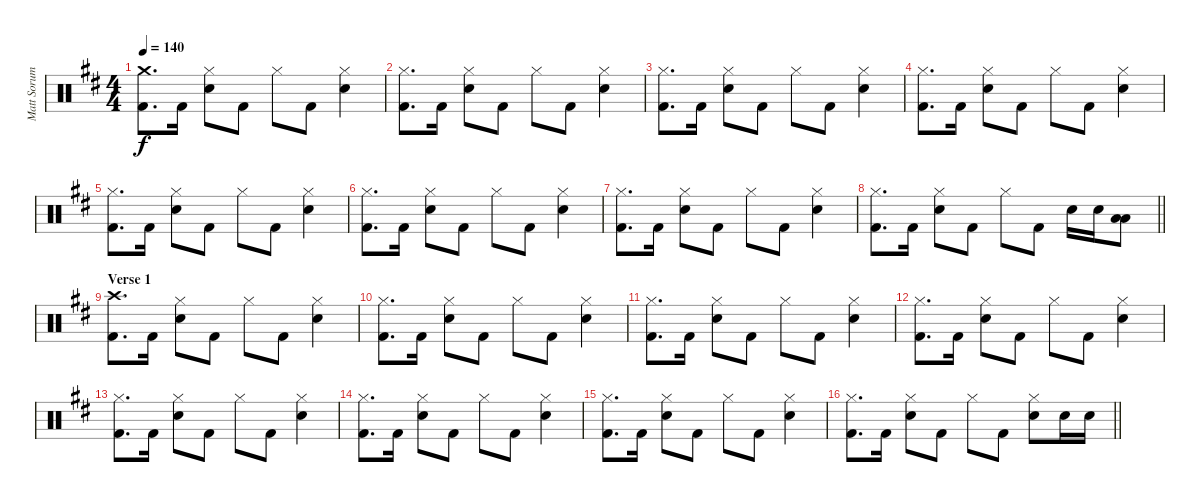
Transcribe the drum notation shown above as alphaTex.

\track ("Matt Sorum - Drums" "Matt Sorum") {instrument percussion}
\staff {score}
\articulation defaults
\ts (4 4)
\tempo 140
\clef neutral
\ks d
("Crash medium (hit)" "Kick (hit) 2").8{d dy f} "Kick (hit) 2".16 ("Hi-Hat (closed)" "Snare (hit) 2").8 "Kick (hit) 2".8 "Hi-Hat (closed)".8 "Kick (hit) 2".8 ("Hi-Hat (closed)" "Snare (hit) 2").4 |
("Hi-Hat (closed)" "Kick (hit) 2").8{d} "Kick (hit) 2".16 ("Hi-Hat (closed)" "Snare (hit) 2").8 "Kick (hit) 2".8 "Hi-Hat (closed)".8 "Kick (hit) 2".8 ("Hi-Hat (closed)" "Snare (hit) 2").4 |
("Hi-Hat (closed)" "Kick (hit) 2").8{d} "Kick (hit) 2".16 ("Hi-Hat (closed)" "Snare (hit) 2").8 "Kick (hit) 2".8 "Hi-Hat (closed)".8 "Kick (hit) 2".8 ("Hi-Hat (closed)" "Snare (hit) 2").4 |
("Hi-Hat (closed)" "Kick (hit) 2").8{d} "Kick (hit) 2".16 ("Hi-Hat (closed)" "Snare (hit) 2").8 "Kick (hit) 2".8 "Hi-Hat (closed)".8 "Kick (hit) 2".8 ("Hi-Hat (closed)" "Snare (hit) 2").4 |
("Hi-Hat (closed)" "Kick (hit) 2").8{d} "Kick (hit) 2".16 ("Hi-Hat (closed)" "Snare (hit) 2").8 "Kick (hit) 2".8 "Hi-Hat (closed)".8 "Kick (hit) 2".8 ("Hi-Hat (closed)" "Snare (hit) 2").4 |
("Hi-Hat (closed)" "Kick (hit) 2").8{d} "Kick (hit) 2".16 ("Hi-Hat (closed)" "Snare (hit) 2").8 "Kick (hit) 2".8 "Hi-Hat (closed)".8 "Kick (hit) 2".8 ("Hi-Hat (closed)" "Snare (hit) 2").4 |
("Hi-Hat (closed)" "Kick (hit) 2").8{d} "Kick (hit) 2".16 ("Hi-Hat (closed)" "Snare (hit) 2").8 "Kick (hit) 2".8 "Hi-Hat (closed)".8 "Kick (hit) 2".8 ("Hi-Hat (closed)" "Snare (hit) 2").4 |
\barLineRight lightlight
("Hi-Hat (closed)" "Kick (hit) 2").8{d} "Kick (hit) 2".16 ("Hi-Hat (closed)" "Snare (hit) 2").8 "Kick (hit) 2".8 "Hi-Hat (closed)".8 "Kick (hit) 2".8 "Snare (hit) 2".16 "Snare (hit) 2".16 ("Low Tom (hit)" "Low Tom (hit)").8 |
\section ("" "Verse 1")
("Crash high (hit)" "Kick (hit) 2").8{d} "Kick (hit) 2".16 ("Hi-Hat (closed)" "Snare (hit) 2").8 "Kick (hit) 2".8 "Hi-Hat (closed)".8 "Kick (hit) 2".8 ("Hi-Hat (closed)" "Snare (hit) 2").4 |
("Hi-Hat (closed)" "Kick (hit) 2").8{d} "Kick (hit) 2".16 ("Hi-Hat (closed)" "Snare (hit) 2").8 "Kick (hit) 2".8 "Hi-Hat (closed)".8 "Kick (hit) 2".8 ("Hi-Hat (closed)" "Snare (hit) 2").4 |
("Hi-Hat (closed)" "Kick (hit) 2").8{d} "Kick (hit) 2".16 ("Hi-Hat (closed)" "Snare (hit) 2").8 "Kick (hit) 2".8 "Hi-Hat (closed)".8 "Kick (hit) 2".8 ("Hi-Hat (closed)" "Snare (hit) 2").4 |
("Hi-Hat (closed)" "Kick (hit) 2").8{d} "Kick (hit) 2".16 ("Hi-Hat (closed)" "Snare (hit) 2").8 "Kick (hit) 2".8 "Hi-Hat (closed)".8 "Kick (hit) 2".8 ("Hi-Hat (closed)" "Snare (hit) 2").4 |
("Hi-Hat (closed)" "Kick (hit) 2").8{d} "Kick (hit) 2".16 ("Hi-Hat (closed)" "Snare (hit) 2").8 "Kick (hit) 2".8 "Hi-Hat (closed)".8 "Kick (hit) 2".8 ("Hi-Hat (closed)" "Snare (hit) 2").4 |
("Hi-Hat (closed)" "Kick (hit) 2").8{d} "Kick (hit) 2".16 ("Hi-Hat (closed)" "Snare (hit) 2").8 "Kick (hit) 2".8 "Hi-Hat (closed)".8 "Kick (hit) 2".8 ("Hi-Hat (closed)" "Snare (hit) 2").4 |
("Hi-Hat (closed)" "Kick (hit) 2").8{d} "Kick (hit) 2".16 ("Hi-Hat (closed)" "Snare (hit) 2").8 "Kick (hit) 2".8 "Hi-Hat (closed)".8 "Kick (hit) 2".8 ("Hi-Hat (closed)" "Snare (hit) 2").4 |
\barLineRight lightlight
("Hi-Hat (closed)" "Kick (hit) 2").8{d} "Kick (hit) 2".16 ("Hi-Hat (closed)" "Snare (hit) 2").8 "Kick (hit) 2".8 "Hi-Hat (closed)".8 "Kick (hit) 2".8 ("Hi-Hat (closed)" "Snare (hit) 2").8 "Snare (hit) 2".16 "Snare (hit) 2".16
